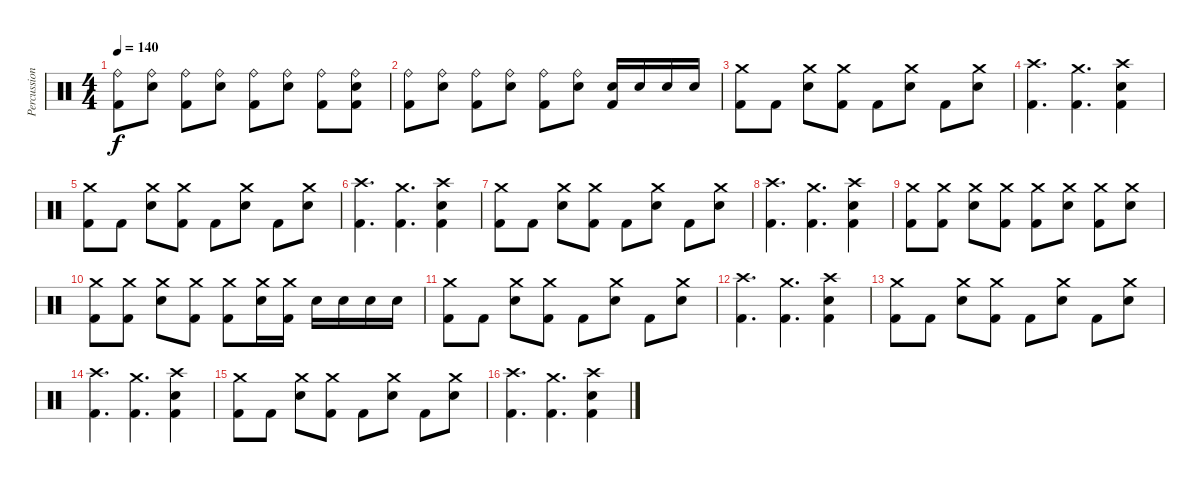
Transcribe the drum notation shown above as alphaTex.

\track ("Percussion" "Percussion") {instrument percussion}
\staff {score}
\articulation defaults
\ts (4 4)
\tempo 140
\clef neutral
\ks c
("Kick (hit) 2" "Ride (bell)").8{dy f} ("Snare (hit) 2" "Ride (bell)").8 ("Kick (hit) 2" "Ride (bell)").8 ("Snare (hit) 2" "Ride (bell)").8 ("Kick (hit) 2" "Ride (bell)").8 ("Snare (hit) 2" "Ride (bell)").8 ("Kick (hit) 2" "Ride (bell)").8 ("Kick (hit) 2" "Snare (hit) 2" "Ride (bell)").8 |
("Kick (hit) 2" "Ride (bell)").8 ("Snare (hit) 2" "Ride (bell)").8 ("Kick (hit) 2" "Ride (bell)").8 ("Snare (hit) 2" "Ride (bell)").8 ("Kick (hit) 2" "Ride (bell)").8 ("Snare (hit) 2" "Ride (bell)").8 ("Kick (hit) 2" "Snare (hit) 2").16 "Snare (hit) 2".16 "Snare (hit) 2".16 "Snare (hit) 2".16 |
("Kick (hit) 2" "Crash medium (hit)").8 "Kick (hit) 2".8 ("Snare (hit) 2" "Crash medium (hit)").8 ("Kick (hit) 2" "Crash medium (hit)").8 "Kick (hit) 2".8 ("Snare (hit) 2" "Crash medium (hit)").8 "Kick (hit) 2".8 ("Snare (hit) 2" "Crash medium (hit)").8 |
("Kick (hit) 2" "Crash high (hit)").4{d} ("Kick (hit) 2" "Crash medium (hit)").4{d} ("Kick (hit) 2" "Snare (hit) 2" "Crash high (hit)").4 |
("Kick (hit) 2" "Crash medium (hit)").8 "Kick (hit) 2".8 ("Snare (hit) 2" "Crash medium (hit)").8 ("Kick (hit) 2" "Crash medium (hit)").8 "Kick (hit) 2".8 ("Snare (hit) 2" "Crash medium (hit)").8 "Kick (hit) 2".8 ("Snare (hit) 2" "Crash medium (hit)").8 |
("Kick (hit) 2" "Crash high (hit)").4{d} ("Kick (hit) 2" "Crash medium (hit)").4{d} ("Kick (hit) 2" "Snare (hit) 2" "Crash high (hit)").4 |
("Kick (hit) 2" "Crash medium (hit)").8 "Kick (hit) 2".8 ("Snare (hit) 2" "Crash medium (hit)").8 ("Kick (hit) 2" "Crash medium (hit)").8 "Kick (hit) 2".8 ("Snare (hit) 2" "Crash medium (hit)").8 "Kick (hit) 2".8 ("Snare (hit) 2" "Crash medium (hit)").8 |
("Kick (hit) 2" "Crash high (hit)").4{d} ("Kick (hit) 2" "Crash medium (hit)").4{d} ("Kick (hit) 2" "Snare (hit) 2" "Crash high (hit)").4 |
("Kick (hit) 2" "Crash medium (hit)").8 ("Kick (hit) 2" "Crash medium (hit)").8 ("Snare (hit) 2" "Crash medium (hit)").8 ("Kick (hit) 2" "Crash medium (hit)").8 ("Kick (hit) 2" "Crash medium (hit)").8 ("Snare (hit) 2" "Crash medium (hit)").8 ("Kick (hit) 2" "Crash medium (hit)").8 ("Snare (hit) 2" "Crash medium (hit)").8 |
("Kick (hit) 2" "Crash medium (hit)").8 ("Kick (hit) 2" "Crash medium (hit)").8 ("Snare (hit) 2" "Crash medium (hit)").8 ("Kick (hit) 2" "Crash medium (hit)").8 ("Kick (hit) 2" "Crash medium (hit)").8 ("Snare (hit) 2" "Crash medium (hit)").16 ("Kick (hit) 2" "Crash medium (hit)").16 "Snare (hit) 2".16 "Snare (hit) 2".16 "Snare (hit) 2".16 "Snare (hit) 2".16 |
("Kick (hit) 2" "Crash medium (hit)").8 "Kick (hit) 2".8 ("Snare (hit) 2" "Crash medium (hit)").8 ("Kick (hit) 2" "Crash medium (hit)").8 "Kick (hit) 2".8 ("Snare (hit) 2" "Crash medium (hit)").8 "Kick (hit) 2".8 ("Snare (hit) 2" "Crash medium (hit)").8 |
("Kick (hit) 2" "Crash high (hit)").4{d} ("Kick (hit) 2" "Crash medium (hit)").4{d} ("Kick (hit) 2" "Snare (hit) 2" "Crash high (hit)").4 |
("Kick (hit) 2" "Crash medium (hit)").8 "Kick (hit) 2".8 ("Snare (hit) 2" "Crash medium (hit)").8 ("Kick (hit) 2" "Crash medium (hit)").8 "Kick (hit) 2".8 ("Snare (hit) 2" "Crash medium (hit)").8 "Kick (hit) 2".8 ("Snare (hit) 2" "Crash medium (hit)").8 |
("Kick (hit) 2" "Crash high (hit)").4{d} ("Kick (hit) 2" "Crash medium (hit)").4{d} ("Kick (hit) 2" "Snare (hit) 2" "Crash high (hit)").4 |
("Kick (hit) 2" "Crash medium (hit)").8 "Kick (hit) 2".8 ("Snare (hit) 2" "Crash medium (hit)").8 ("Kick (hit) 2" "Crash medium (hit)").8 "Kick (hit) 2".8 ("Snare (hit) 2" "Crash medium (hit)").8 "Kick (hit) 2".8 ("Snare (hit) 2" "Crash medium (hit)").8 |
("Kick (hit) 2" "Crash high (hit)").4{d} ("Kick (hit) 2" "Crash medium (hit)").4{d} ("Kick (hit) 2" "Snare (hit) 2" "Crash high (hit)").4
